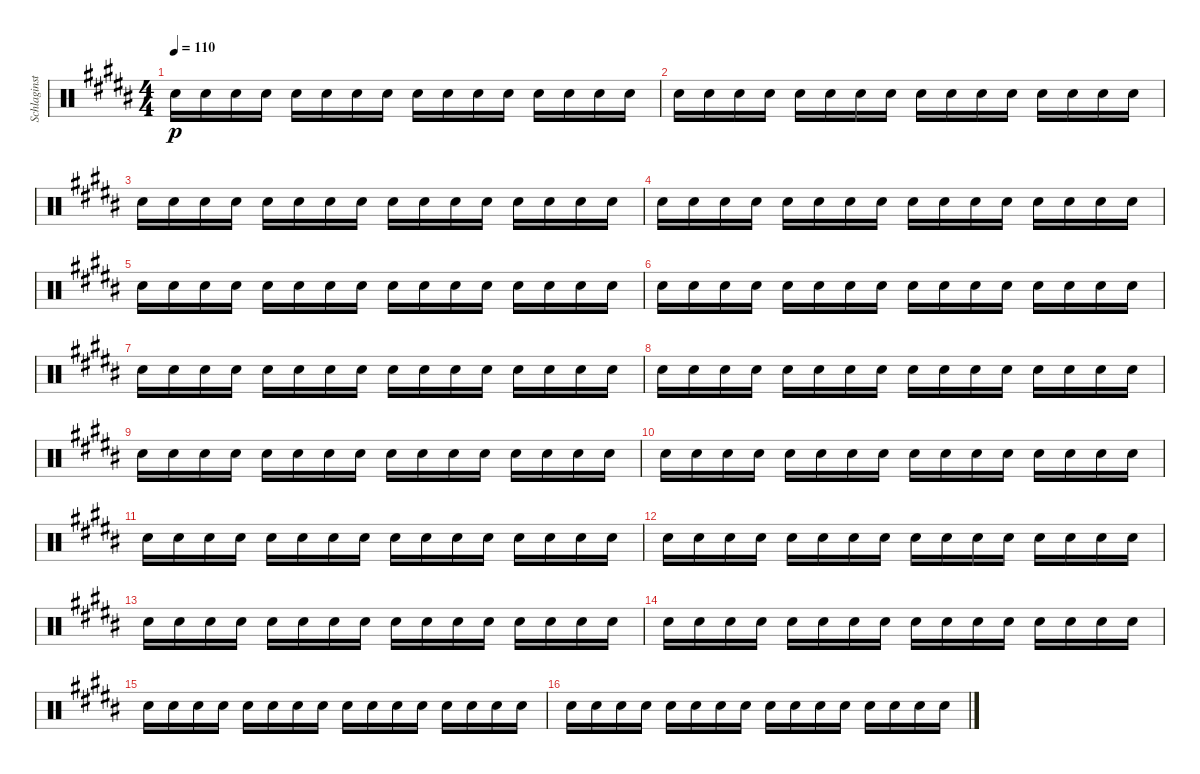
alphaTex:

\track ("Schlaginstrumente - Auswahl" "Schlaginst") {instrument percussion}
\staff {score}
\articulation defaults
\ts (4 4)
\tempo 110
\clef neutral
\ks b "Snare (hit) 2".16{dy p} "Snare (hit) 2".16 "Snare (hit) 2".16 "Snare (hit) 2".16 "Snare (hit) 2".16 "Snare (hit) 2".16 "Snare (hit) 2".16 "Snare (hit) 2".16 "Snare (hit) 2".16 "Snare (hit) 2".16 "Snare (hit) 2".16 "Snare (hit) 2".16 "Snare (hit) 2".16 "Snare (hit) 2".16 "Snare (hit) 2".16 "Snare (hit) 2".16
|
"Snare (hit) 2".16 "Snare (hit) 2".16 "Snare (hit) 2".16 "Snare (hit) 2".16 "Snare (hit) 2".16 "Snare (hit) 2".16 "Snare (hit) 2".16 "Snare (hit) 2".16 "Snare (hit) 2".16 "Snare (hit) 2".16 "Snare (hit) 2".16 "Snare (hit) 2".16 "Snare (hit) 2".16 "Snare (hit) 2".16 "Snare (hit) 2".16 "Snare (hit) 2".16 |
"Snare (hit) 2".16 "Snare (hit) 2".16 "Snare (hit) 2".16 "Snare (hit) 2".16 "Snare (hit) 2".16 "Snare (hit) 2".16 "Snare (hit) 2".16 "Snare (hit) 2".16 "Snare (hit) 2".16 "Snare (hit) 2".16 "Snare (hit) 2".16 "Snare (hit) 2".16 "Snare (hit) 2".16 "Snare (hit) 2".16 "Snare (hit) 2".16 "Snare (hit) 2".16 |
"Snare (hit) 2".16 "Snare (hit) 2".16 "Snare (hit) 2".16 "Snare (hit) 2".16 "Snare (hit) 2".16 "Snare (hit) 2".16 "Snare (hit) 2".16 "Snare (hit) 2".16 "Snare (hit) 2".16 "Snare (hit) 2".16 "Snare (hit) 2".16 "Snare (hit) 2".16 "Snare (hit) 2".16 "Snare (hit) 2".16 "Snare (hit) 2".16 "Snare (hit) 2".16 |
"Snare (hit) 2".16 "Snare (hit) 2".16 "Snare (hit) 2".16 "Snare (hit) 2".16 "Snare (hit) 2".16 "Snare (hit) 2".16 "Snare (hit) 2".16 "Snare (hit) 2".16 "Snare (hit) 2".16 "Snare (hit) 2".16 "Snare (hit) 2".16 "Snare (hit) 2".16 "Snare (hit) 2".16 "Snare (hit) 2".16 "Snare (hit) 2".16 "Snare (hit) 2".16 |
"Snare (hit) 2".16 "Snare (hit) 2".16 "Snare (hit) 2".16 "Snare (hit) 2".16 "Snare (hit) 2".16 "Snare (hit) 2".16 "Snare (hit) 2".16 "Snare (hit) 2".16 "Snare (hit) 2".16 "Snare (hit) 2".16 "Snare (hit) 2".16 "Snare (hit) 2".16 "Snare (hit) 2".16 "Snare (hit) 2".16 "Snare (hit) 2".16 "Snare (hit) 2".16 |
"Snare (hit) 2".16 "Snare (hit) 2".16 "Snare (hit) 2".16 "Snare (hit) 2".16 "Snare (hit) 2".16 "Snare (hit) 2".16 "Snare (hit) 2".16 "Snare (hit) 2".16 "Snare (hit) 2".16 "Snare (hit) 2".16 "Snare (hit) 2".16 "Snare (hit) 2".16 "Snare (hit) 2".16 "Snare (hit) 2".16 "Snare (hit) 2".16 "Snare (hit) 2".16 |
"Snare (hit) 2".16 "Snare (hit) 2".16 "Snare (hit) 2".16 "Snare (hit) 2".16 "Snare (hit) 2".16 "Snare (hit) 2".16 "Snare (hit) 2".16 "Snare (hit) 2".16 "Snare (hit) 2".16 "Snare (hit) 2".16 "Snare (hit) 2".16 "Snare (hit) 2".16 "Snare (hit) 2".16 "Snare (hit) 2".16 "Snare (hit) 2".16 "Snare (hit) 2".16 |
"Snare (hit) 2".16 "Snare (hit) 2".16 "Snare (hit) 2".16 "Snare (hit) 2".16 "Snare (hit) 2".16 "Snare (hit) 2".16 "Snare (hit) 2".16 "Snare (hit) 2".16 "Snare (hit) 2".16 "Snare (hit) 2".16 "Snare (hit) 2".16 "Snare (hit) 2".16 "Snare (hit) 2".16 "Snare (hit) 2".16 "Snare (hit) 2".16 "Snare (hit) 2".16 |
"Snare (hit) 2".16 "Snare (hit) 2".16 "Snare (hit) 2".16 "Snare (hit) 2".16 "Snare (hit) 2".16 "Snare (hit) 2".16 "Snare (hit) 2".16 "Snare (hit) 2".16 "Snare (hit) 2".16 "Snare (hit) 2".16 "Snare (hit) 2".16 "Snare (hit) 2".16 "Snare (hit) 2".16 "Snare (hit) 2".16 "Snare (hit) 2".16 "Snare (hit) 2".16 |
"Snare (hit) 2".16 "Snare (hit) 2".16 "Snare (hit) 2".16 "Snare (hit) 2".16 "Snare (hit) 2".16 "Snare (hit) 2".16 "Snare (hit) 2".16 "Snare (hit) 2".16 "Snare (hit) 2".16 "Snare (hit) 2".16 "Snare (hit) 2".16 "Snare (hit) 2".16 "Snare (hit) 2".16 "Snare (hit) 2".16 "Snare (hit) 2".16 "Snare (hit) 2".16 |
"Snare (hit) 2".16 "Snare (hit) 2".16 "Snare (hit) 2".16 "Snare (hit) 2".16 "Snare (hit) 2".16 "Snare (hit) 2".16 "Snare (hit) 2".16 "Snare (hit) 2".16 "Snare (hit) 2".16 "Snare (hit) 2".16 "Snare (hit) 2".16 "Snare (hit) 2".16 "Snare (hit) 2".16 "Snare (hit) 2".16 "Snare (hit) 2".16 "Snare (hit) 2".16 |
"Snare (hit) 2".16 "Snare (hit) 2".16 "Snare (hit) 2".16 "Snare (hit) 2".16 "Snare (hit) 2".16 "Snare (hit) 2".16 "Snare (hit) 2".16 "Snare (hit) 2".16 "Snare (hit) 2".16 "Snare (hit) 2".16 "Snare (hit) 2".16 "Snare (hit) 2".16 "Snare (hit) 2".16 "Snare (hit) 2".16 "Snare (hit) 2".16 "Snare (hit) 2".16 |
"Snare (hit) 2".16 "Snare (hit) 2".16 "Snare (hit) 2".16 "Snare (hit) 2".16 "Snare (hit) 2".16 "Snare (hit) 2".16 "Snare (hit) 2".16 "Snare (hit) 2".16 "Snare (hit) 2".16 "Snare (hit) 2".16 "Snare (hit) 2".16 "Snare (hit) 2".16 "Snare (hit) 2".16 "Snare (hit) 2".16 "Snare (hit) 2".16 "Snare (hit) 2".16 |
"Snare (hit) 2".16 "Snare (hit) 2".16 "Snare (hit) 2".16 "Snare (hit) 2".16 "Snare (hit) 2".16 "Snare (hit) 2".16 "Snare (hit) 2".16 "Snare (hit) 2".16 "Snare (hit) 2".16 "Snare (hit) 2".16 "Snare (hit) 2".16 "Snare (hit) 2".16 "Snare (hit) 2".16 "Snare (hit) 2".16 "Snare (hit) 2".16 "Snare (hit) 2".16 |
"Snare (hit) 2".16 "Snare (hit) 2".16 "Snare (hit) 2".16 "Snare (hit) 2".16 "Snare (hit) 2".16 "Snare (hit) 2".16 "Snare (hit) 2".16 "Snare (hit) 2".16 "Snare (hit) 2".16 "Snare (hit) 2".16 "Snare (hit) 2".16 "Snare (hit) 2".16 "Snare (hit) 2".16 "Snare (hit) 2".16 "Snare (hit) 2".16 "Snare (hit) 2".16
